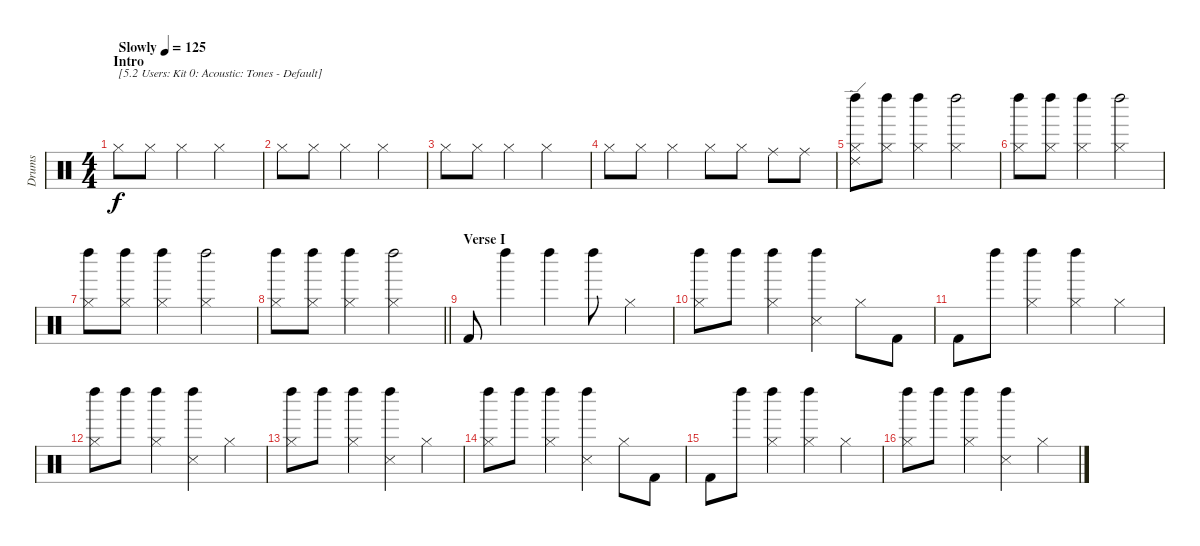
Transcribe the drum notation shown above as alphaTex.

\track ("Drums" "Drums") {instrument percussion}
\staff {score}
\articulation defaults
\ts (4 4)
\section ("" "Intro")
\tempo (125 "Slowly")
\clef neutral
\ks c "Hi-Hat (closed)".8{txt "[5.2 Users: Kit 0: Acoustic: Tones - Default]" dy f} "Hi-Hat (closed)".8 "Hi-Hat (closed)".4 "Hi-Hat (closed)".2
|
"Hi-Hat (closed)".8 "Hi-Hat (closed)".8 "Hi-Hat (closed)".4 "Hi-Hat (closed)".2 |
"Hi-Hat (closed)".8 "Hi-Hat (closed)".8 "Hi-Hat (closed)".4 "Hi-Hat (closed)".2 |
"Hi-Hat (closed)".8 "Hi-Hat (closed)".8 "Hi-Hat (closed)".4 "Hi-Hat (closed)".8 "Hi-Hat (closed)".8 "Ride (middle)".8 "Ride (middle)".8 |
("Ride (edge) 2" "Hi-Hat (closed)" "Left Maraca (hit)").8 ("Hi-Hat (closed)" "Left Maraca (hit)").8 ("Hi-Hat (closed)" "Left Maraca (hit)").4 ("Hi-Hat (closed)" "Left Maraca (hit)").2 |
("Hi-Hat (closed)" "Left Maraca (hit)").8 ("Hi-Hat (closed)" "Left Maraca (hit)").8 ("Hi-Hat (closed)" "Left Maraca (hit)").4 ("Hi-Hat (closed)" "Left Maraca (hit)").2 |
("Hi-Hat (closed)" "Left Maraca (hit)").8 ("Hi-Hat (closed)" "Left Maraca (hit)").8 ("Hi-Hat (closed)" "Left Maraca (hit)").4 ("Hi-Hat (closed)" "Left Maraca (hit)").2 |
\barLineRight lightlight
("Hi-Hat (closed)" "Left Maraca (hit)").8 ("Hi-Hat (closed)" "Left Maraca (hit)").8 ("Hi-Hat (closed)" "Left Maraca (hit)").4 ("Hi-Hat (closed)" "Left Maraca (hit)").2 |
\section ("" "Verse I")
"Kick (hit) 2".8 "Left Maraca (hit)".4 "Left Maraca (hit)".4 "Left Maraca (hit)".8 "Hi-Hat (closed)".4 |
("Hi-Hat (closed)" "Left Maraca (hit)").8 "Left Maraca (hit)".8 ("Hi-Hat (closed)" "Left Maraca (hit)").4 ("Snare (side stick) 3" "Left Maraca (hit)").4 "Hi-Hat (closed)".8 "Kick (hit) 2".8 |
"Kick (hit) 2".8 "Left Maraca (hit)".8 ("Hi-Hat (closed)" "Left Maraca (hit)").4 ("Hi-Hat (closed)" "Left Maraca (hit)").4 "Hi-Hat (closed)".4 |
("Hi-Hat (closed)" "Left Maraca (hit)").8 "Left Maraca (hit)".8 ("Hi-Hat (closed)" "Left Maraca (hit)").4 ("Snare (side stick) 3" "Left Maraca (hit)").4 "Hi-Hat (closed)".4 |
("Hi-Hat (closed)" "Left Maraca (hit)").8 "Left Maraca (hit)".8 ("Hi-Hat (closed)" "Left Maraca (hit)").4 ("Snare (side stick) 3" "Left Maraca (hit)").4 "Hi-Hat (closed)".4 |
("Hi-Hat (closed)" "Left Maraca (hit)").8 "Left Maraca (hit)".8 ("Hi-Hat (closed)" "Left Maraca (hit)").4 ("Snare (side stick) 3" "Left Maraca (hit)").4 "Hi-Hat (closed)".8 "Kick (hit) 2".8 |
"Kick (hit) 2".8 "Left Maraca (hit)".8 ("Hi-Hat (closed)" "Left Maraca (hit)").4 ("Hi-Hat (closed)" "Left Maraca (hit)").4 "Hi-Hat (closed)".4 |
("Hi-Hat (closed)" "Left Maraca (hit)").8 "Left Maraca (hit)".8 ("Hi-Hat (closed)" "Left Maraca (hit)").4 ("Snare (side stick) 3" "Left Maraca (hit)").4 "Hi-Hat (closed)".4
